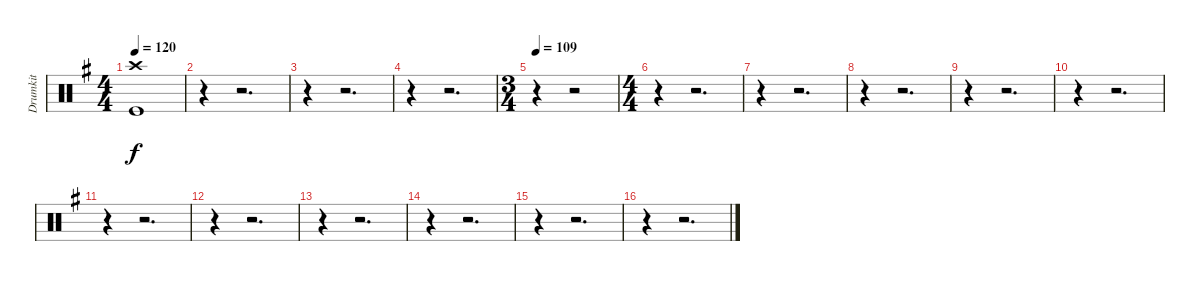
\track ("Drumkit" "Drumkit") {instrument percussion}
\staff {score}
\articulation defaults
\ts (4 4)
\tempo 120
\clef neutral
\ks g
("Kick (hit)" "Crash high (hit)").1{dy f} |
r.4 r.2{d} |
r.4 r.2{d} |
r.4 r.2{d} |
\ts (3 4)
\tempo 109
r.4 r.2 |
\ts (4 4)
r.4 r.2{d} |
r.4 r.2{d} |
r.4 r.2{d} |
r.4 r.2{d} |
r.4 r.2{d} |
r.4 r.2{d} |
r.4 r.2{d} |
r.4 r.2{d} |
r.4 r.2{d} |
r.4 r.2{d} |
r.4 r.2{d}
